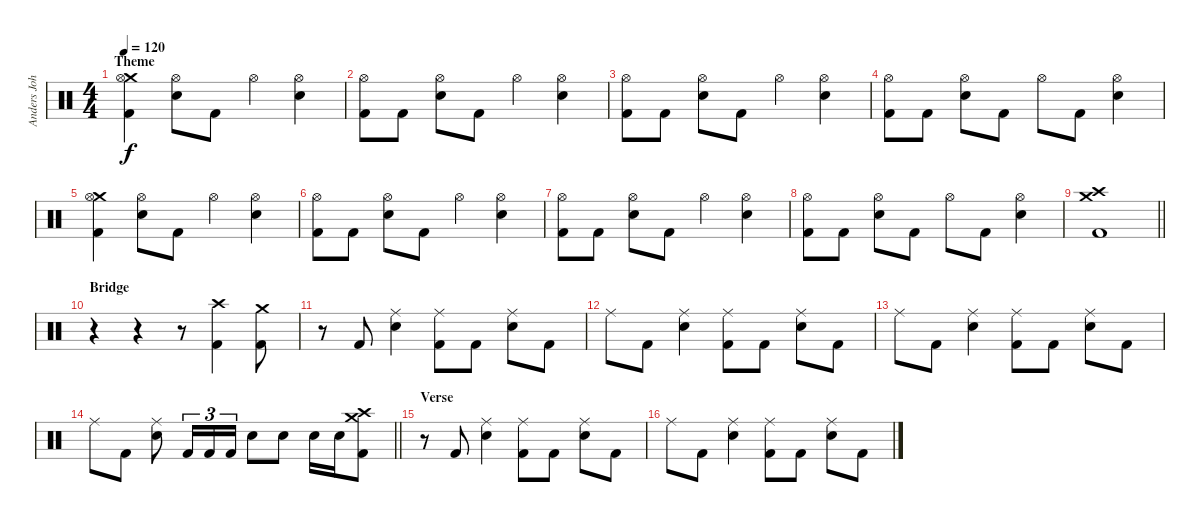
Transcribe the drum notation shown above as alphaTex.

\track ("Anders Johansson" "Anders Joh") {instrument percussion}
\staff {score}
\articulation defaults
\ts (4 4)
\section ("" "Theme")
\tempo 120
\clef neutral
\ks c
("Crash medium (hit)" "Hi-Hat (open)" "Kick (hit) 2").4{dy f} ("Hi-Hat (open)" "Snare (hit) 2").8 "Kick (hit) 2".8 "Hi-Hat (open)".4 ("Hi-Hat (open)" "Snare (hit) 2").4 |
("Hi-Hat (open)" "Kick (hit) 2").8 "Kick (hit) 2".8 ("Hi-Hat (open)" "Snare (hit) 2").8 "Kick (hit) 2".8 "Hi-Hat (open)".4 ("Hi-Hat (open)" "Snare (hit) 2").4 |
("Hi-Hat (open)" "Kick (hit) 2").8 "Kick (hit) 2".8 ("Hi-Hat (open)" "Snare (hit) 2").8 "Kick (hit) 2".8 "Hi-Hat (open)".4 ("Hi-Hat (open)" "Snare (hit) 2").4 |
("Hi-Hat (open)" "Kick (hit) 2").8 "Kick (hit) 2".8 ("Hi-Hat (open)" "Snare (hit) 2").8 "Kick (hit) 2".8 "Hi-Hat (open)".8 "Kick (hit) 2".8 ("Hi-Hat (open)" "Snare (hit) 2").4 |
("Crash medium (hit)" "Hi-Hat (open)" "Kick (hit) 2").4 ("Hi-Hat (open)" "Snare (hit) 2").8 "Kick (hit) 2".8 "Hi-Hat (open)".4 ("Hi-Hat (open)" "Snare (hit) 2").4 |
("Hi-Hat (open)" "Kick (hit) 2").8 "Kick (hit) 2".8 ("Hi-Hat (open)" "Snare (hit) 2").8 "Kick (hit) 2".8 "Hi-Hat (open)".4 ("Hi-Hat (open)" "Snare (hit) 2").4 |
("Hi-Hat (open)" "Kick (hit) 2").8 "Kick (hit) 2".8 ("Hi-Hat (open)" "Snare (hit) 2").8 "Kick (hit) 2".8 "Hi-Hat (open)".4 ("Hi-Hat (open)" "Snare (hit) 2").4 |
("Hi-Hat (open)" "Kick (hit) 2").8 "Kick (hit) 2".8 ("Hi-Hat (open)" "Snare (hit) 2").8 "Kick (hit) 2".8 "Hi-Hat (open)".8 "Kick (hit) 2".8 ("Hi-Hat (open)" "Snare (hit) 2").4 |
\barLineRight lightlight
("Crash high (hit)" "Crash medium (hit)" "Kick (hit) 2").1 |
\section ("" "Bridge")
r.4 r.4 r.8 ("Crash high (hit)" "Kick (hit) 2").4 ("Crash medium (hit)" "Kick (hit) 2").8 |
r.8 "Kick (hit) 2".8 ("Ride (middle)" "Snare (hit) 2").4 ("Ride (middle)" "Kick (hit) 2").8 "Kick (hit) 2".8 ("Ride (middle)" "Snare (hit) 2").8 "Kick (hit) 2".8 |
"Ride (middle)".8 "Kick (hit) 2".8 ("Ride (middle)" "Snare (hit) 2").4 ("Ride (middle)" "Kick (hit) 2").8 "Kick (hit) 2".8 ("Ride (middle)" "Snare (hit) 2").8 "Kick (hit) 2".8 |
"Ride (middle)".8 "Kick (hit) 2".8 ("Ride (middle)" "Snare (hit) 2").4 ("Ride (middle)" "Kick (hit) 2").8 "Kick (hit) 2".8 ("Ride (middle)" "Snare (hit) 2").8 "Kick (hit) 2".8 |
\barLineRight lightlight "Ride (middle)".8 "Kick (hit) 2".8
("Ride (middle)" "Snare (hit) 2").8 "Kick (hit) 2".16{tu (3 2)} "Kick (hit) 2".16{tu (3 2)} "Kick (hit) 2".16{tu (3 2)} "Snare (hit) 2".8 "Snare (hit) 2".8 "Snare (hit) 2".16 "Snare (hit) 2".16 ("Crash high (hit)" "Crash medium (hit)" "Kick (hit) 2").8 |
\section ("" "Verse")
r.8 "Kick (hit) 2".8 ("Ride (middle)" "Snare (hit) 2").4 ("Ride (middle)" "Kick (hit) 2").8 "Kick (hit) 2".8 ("Ride (middle)" "Snare (hit) 2").8 "Kick (hit) 2".8 |
"Ride (middle)".8 "Kick (hit) 2".8 ("Ride (middle)" "Snare (hit) 2").4 ("Ride (middle)" "Kick (hit) 2").8 "Kick (hit) 2".8 ("Ride (middle)" "Snare (hit) 2").8 "Kick (hit) 2".8
